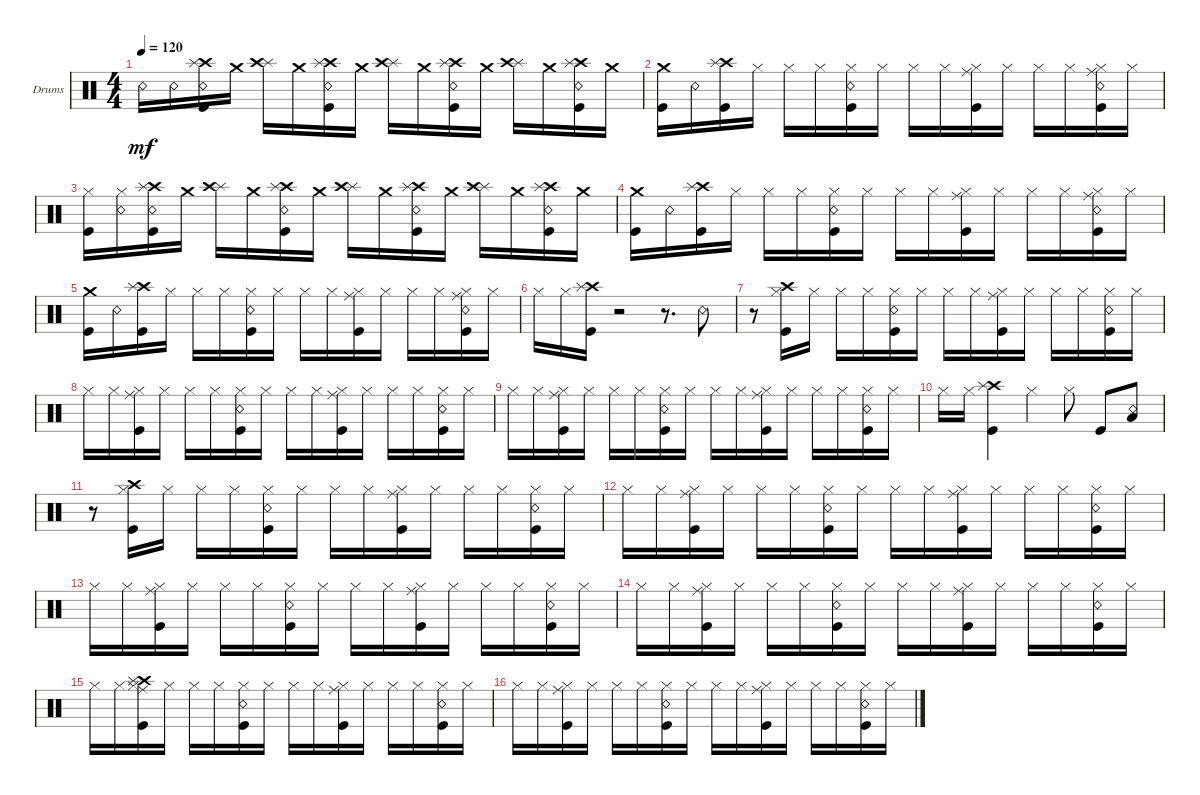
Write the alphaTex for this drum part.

\defaultSystemsLayout 4
\bracketExtendMode groupsimilarinstruments
\firstSystemTrackNameOrientation horizontal
\otherSystemsTrackNameOrientation horizontal
\track ("Нюта" "Drums") {instrument percussion}
\staff {score}
\articulation defaults
\ts (4 4)
\tempo 120
\clef neutral
\ks c "Snare (rim shot)".16{dy mf} "Snare (rim shot)".16
("Kick (hit)" "Crash high (hit)" "Splash (hit)" "Snare (rim shot)").16 "Crash medium (hit)".16 ("Splash (hit)" "Crash high (hit)").16 "Crash medium (hit)".16 ("Crash high (hit)" "Splash (hit)" "Kick (hit)" "Snare (rim shot)").16 "Crash medium (hit)".16 ("Splash (hit)" "Crash high (hit)").16 "Crash medium (hit)".16 ("Crash high (hit)" "Splash (hit)" "Kick (hit)" "Snare (rim shot)").16 "Crash medium (hit)".16 ("Splash (hit)" "Crash high (hit)").16 "Crash medium (hit)".16 ("Crash high (hit)" "Splash (hit)" "Kick (hit)" "Snare (rim shot)").16 "Crash medium (hit)".16 |
("Kick (hit)" "Crash medium (hit)").16 "Snare (rim shot)".16 ("Crash high (hit)" "Splash (hit)" "Kick (hit)").16 "Hi-Hat (closed)".16 "Hi-Hat (closed)".16 "Hi-Hat (closed)".16 ("Hi-Hat (closed)" "Snare (rim shot)" "Kick (hit)").16 "Hi-Hat (closed)".16 "Hi-Hat (closed)".16 "Hi-Hat (closed)".16 ("Hi-Hat (closed)" "Ride (middle)" "Kick (hit)").16 "Hi-Hat (closed)".16 "Hi-Hat (closed)".16 "Hi-Hat (closed)".16 ("Hi-Hat (closed)" "Ride (middle)" "Kick (hit)" "Snare (rim shot)").16 "Hi-Hat (closed)".16 |
("Hi-Hat (closed)" "Kick (hit)").16 ("Hi-Hat (closed)" "Snare (rim shot)").16 ("Kick (hit)" "Crash high (hit)" "Splash (hit)" "Snare (rim shot)").16 "Crash medium (hit)".16 ("Splash (hit)" "Crash high (hit)").16 "Crash medium (hit)".16 ("Crash high (hit)" "Splash (hit)" "Kick (hit)" "Snare (rim shot)").16 "Crash medium (hit)".16 ("Splash (hit)" "Crash high (hit)").16 "Crash medium (hit)".16 ("Crash high (hit)" "Splash (hit)" "Kick (hit)" "Snare (rim shot)").16 "Crash medium (hit)".16 ("Splash (hit)" "Crash high (hit)").16 "Crash medium (hit)".16 ("Crash high (hit)" "Splash (hit)" "Kick (hit)" "Snare (rim shot)").16 "Crash medium (hit)".16 |
("Kick (hit)" "Crash medium (hit)").16 "Snare (rim shot)".16 ("Crash high (hit)" "Splash (hit)" "Kick (hit)").16 "Hi-Hat (closed)".16 "Hi-Hat (closed)".16 "Hi-Hat (closed)".16 ("Hi-Hat (closed)" "Snare (rim shot)" "Kick (hit)").16 "Hi-Hat (closed)".16 "Hi-Hat (closed)".16 "Hi-Hat (closed)".16 ("Hi-Hat (closed)" "Ride (middle)" "Kick (hit)").16 "Hi-Hat (closed)".16 "Hi-Hat (closed)".16 "Hi-Hat (closed)".16 ("Hi-Hat (closed)" "Ride (middle)" "Kick (hit)" "Snare (rim shot)").16 "Hi-Hat (closed)".16 |
("Kick (hit)" "Crash medium (hit)").16 "Snare (rim shot)".16 ("Crash high (hit)" "Splash (hit)" "Kick (hit)").16 "Hi-Hat (closed)".16 "Hi-Hat (closed)".16 "Hi-Hat (closed)".16 ("Hi-Hat (closed)" "Snare (rim shot)" "Kick (hit)").16 "Hi-Hat (closed)".16 "Hi-Hat (closed)".16 "Hi-Hat (closed)".16 ("Hi-Hat (closed)" "Ride (middle)" "Kick (hit)").16 "Hi-Hat (closed)".16 "Hi-Hat (closed)".16 "Hi-Hat (closed)".16 ("Hi-Hat (closed)" "Ride (middle)" "Kick (hit)" "Snare (rim shot)").16 "Hi-Hat (closed)".16 |
"Hi-Hat (closed)".16 "Hi-Hat (closed)".16 ("Crash high (hit)" "Splash (hit)" "Kick (hit)").16 r.2 r.8{d} "Snare (rim shot)".8 |
r.8 ("Hi-Hat (closed)" "Crash high (hit)" "Kick (hit)").16 "Hi-Hat (closed)".16 "Hi-Hat (closed)".16 "Hi-Hat (closed)".16 ("Hi-Hat (closed)" "Snare (rim shot)" "Kick (hit)").16 "Hi-Hat (closed)".16 "Hi-Hat (closed)".16 "Hi-Hat (closed)".16 ("Hi-Hat (closed)" "Ride (middle)" "Kick (hit)").16 "Hi-Hat (closed)".16 "Hi-Hat (closed)".16 "Hi-Hat (closed)".16 ("Hi-Hat (closed)" "Snare (rim shot)" "Kick (hit)").16 "Hi-Hat (closed)".16 |
"Hi-Hat (closed)".16 "Hi-Hat (closed)".16 ("Hi-Hat (closed)" "Ride (middle)" "Kick (hit)").16 "Hi-Hat (closed)".16 "Hi-Hat (closed)".16 "Hi-Hat (closed)".16 ("Hi-Hat (closed)" "Snare (rim shot)" "Kick (hit)").16 "Hi-Hat (closed)".16 "Hi-Hat (closed)".16 "Hi-Hat (closed)".16 ("Hi-Hat (closed)" "Ride (middle)" "Kick (hit)").16 "Hi-Hat (closed)".16 "Hi-Hat (closed)".16 "Hi-Hat (closed)".16 ("Hi-Hat (closed)" "Snare (rim shot)" "Kick (hit)").16 "Hi-Hat (closed)".16 |
"Hi-Hat (closed)".16 "Hi-Hat (closed)".16 ("Hi-Hat (closed)" "Ride (middle)" "Kick (hit)").16 "Hi-Hat (closed)".16 "Hi-Hat (closed)".16 "Hi-Hat (closed)".16 ("Hi-Hat (closed)" "Snare (rim shot)" "Kick (hit)").16 "Hi-Hat (closed)".16 "Hi-Hat (closed)".16 "Hi-Hat (closed)".16 ("Hi-Hat (closed)" "Ride (middle)" "Kick (hit)").16 "Hi-Hat (closed)".16 "Hi-Hat (closed)".16 "Hi-Hat (closed)".16 ("Hi-Hat (closed)" "Snare (rim shot)" "Kick (hit)").16 "Hi-Hat (closed)".16 |
"Hi-Hat (closed)".16 "Hi-Hat (closed)".16 ("Crash high (hit)" "Splash (hit)" "Kick (hit)").4 "Hi-Hat (closed)".4 "Hi-Hat (closed)".8 "Kick (hit)".8 ("Snare (rim shot)" "Low Tom (hit)").8 |
r.8 ("Hi-Hat (closed)" "Crash high (hit)" "Kick (hit)").16 "Hi-Hat (closed)".16 "Hi-Hat (closed)".16 "Hi-Hat (closed)".16 ("Hi-Hat (closed)" "Snare (rim shot)" "Kick (hit)").16 "Hi-Hat (closed)".16 "Hi-Hat (closed)".16 "Hi-Hat (closed)".16 ("Hi-Hat (closed)" "Ride (middle)" "Kick (hit)").16 "Hi-Hat (closed)".16 "Hi-Hat (closed)".16 "Hi-Hat (closed)".16 ("Hi-Hat (closed)" "Snare (rim shot)" "Kick (hit)").16 "Hi-Hat (closed)".16 |
"Hi-Hat (closed)".16 "Hi-Hat (closed)".16 ("Hi-Hat (closed)" "Ride (middle)" "Kick (hit)").16 "Hi-Hat (closed)".16 "Hi-Hat (closed)".16 "Hi-Hat (closed)".16 ("Hi-Hat (closed)" "Snare (rim shot)" "Kick (hit)").16 "Hi-Hat (closed)".16 "Hi-Hat (closed)".16 "Hi-Hat (closed)".16 ("Hi-Hat (closed)" "Ride (middle)" "Kick (hit)").16 "Hi-Hat (closed)".16 "Hi-Hat (closed)".16 "Hi-Hat (closed)".16 ("Hi-Hat (closed)" "Snare (rim shot)" "Kick (hit)").16 "Hi-Hat (closed)".16 |
"Hi-Hat (closed)".16 "Hi-Hat (closed)".16 ("Hi-Hat (closed)" "Ride (middle)" "Kick (hit)").16 "Hi-Hat (closed)".16 "Hi-Hat (closed)".16 "Hi-Hat (closed)".16 ("Hi-Hat (closed)" "Snare (rim shot)" "Kick (hit)").16 "Hi-Hat (closed)".16 "Hi-Hat (closed)".16 "Hi-Hat (closed)".16 ("Hi-Hat (closed)" "Ride (middle)" "Kick (hit)").16 "Hi-Hat (closed)".16 "Hi-Hat (closed)".16 "Hi-Hat (closed)".16 ("Hi-Hat (closed)" "Snare (rim shot)" "Kick (hit)").16 "Hi-Hat (closed)".16 |
"Hi-Hat (closed)".16 "Hi-Hat (closed)".16 ("Hi-Hat (closed)" "Ride (middle)" "Kick (hit)").16 "Hi-Hat (closed)".16 "Hi-Hat (closed)".16 "Hi-Hat (closed)".16 ("Hi-Hat (closed)" "Snare (rim shot)" "Kick (hit)").16 "Hi-Hat (closed)".16 "Hi-Hat (closed)".16 "Hi-Hat (closed)".16 ("Hi-Hat (closed)" "Ride (middle)" "Kick (hit)").16 "Hi-Hat (closed)".16 "Hi-Hat (closed)".16 "Hi-Hat (closed)".16 ("Hi-Hat (closed)" "Snare (rim shot)" "Kick (hit)").16 "Hi-Hat (closed)".16 |
"Hi-Hat (closed)".16 "Hi-Hat (closed)".16 ("Hi-Hat (closed)" "Ride (middle)" "Kick (hit)" "Crash high (hit)" "Splash (hit)").16 "Hi-Hat (closed)".16 "Hi-Hat (closed)".16 "Hi-Hat (closed)".16 ("Hi-Hat (closed)" "Snare (rim shot)" "Kick (hit)").16 "Hi-Hat (closed)".16 "Hi-Hat (closed)".16 "Hi-Hat (closed)".16 ("Hi-Hat (closed)" "Ride (middle)" "Kick (hit)").16 "Hi-Hat (closed)".16 "Hi-Hat (closed)".16 "Hi-Hat (closed)".16 ("Hi-Hat (closed)" "Snare (rim shot)" "Kick (hit)").16 "Hi-Hat (closed)".16 |
"Hi-Hat (closed)".16 "Hi-Hat (closed)".16 ("Hi-Hat (closed)" "Ride (middle)" "Kick (hit)").16 "Hi-Hat (closed)".16 "Hi-Hat (closed)".16 "Hi-Hat (closed)".16 ("Hi-Hat (closed)" "Snare (rim shot)" "Kick (hit)").16 "Hi-Hat (closed)".16 "Hi-Hat (closed)".16 "Hi-Hat (closed)".16 ("Hi-Hat (closed)" "Ride (middle)" "Kick (hit)").16 "Hi-Hat (closed)".16 "Hi-Hat (closed)".16 "Hi-Hat (closed)".16 ("Hi-Hat (closed)" "Snare (rim shot)" "Kick (hit)").16 "Hi-Hat (closed)".16
